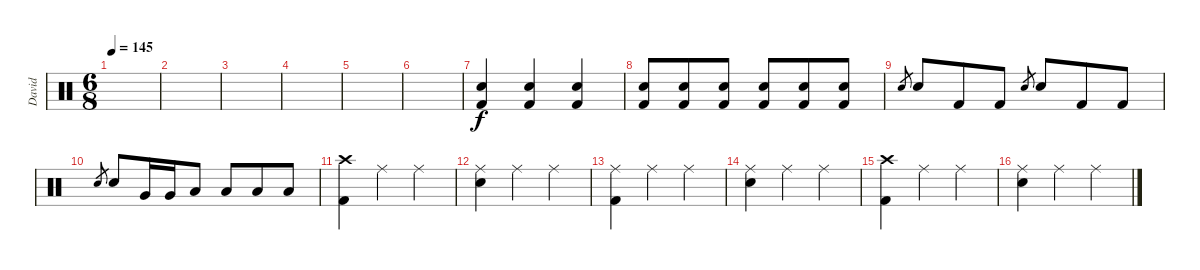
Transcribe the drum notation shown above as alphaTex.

\track ("David" "David") {instrument percussion}
\staff {score}
\articulation defaults
\ts (6 8)
\tempo 145
\clef neutral
\ks c
|
|
|
|
|
|
("Electric Snare (hit)" "Kick (hit) 2").4 ("Electric Snare (hit)" "Kick (hit) 2").4 ("Electric Snare (hit)" "Kick (hit) 2").4 |
("Electric Snare (hit)" "Kick (hit) 2").8 ("Electric Snare (hit)" "Kick (hit) 2").8 ("Electric Snare (hit)" "Kick (hit) 2").8 ("Electric Snare (hit)" "Kick (hit) 2").8 ("Electric Snare (hit)" "Kick (hit) 2").8 ("Electric Snare (hit)" "Kick (hit) 2").8 |
"Electric Snare (hit)".8{gr} "Electric Snare (hit)".8{volume 16} "Kick (hit) 2".8 "Kick (hit) 2".8 "Electric Snare (hit)".8{gr} "Electric Snare (hit)".8 "Kick (hit) 2".8 "Kick (hit) 2".8 |
"Electric Snare (hit)".8{gr} "Electric Snare (hit)".8 "Very Low Tom (hit)".16 "Very Low Tom (hit)".16 "Low Tom (hit)".8 "Low Tom (hit)".8 "Low Floor Tom (hit)".8 "Low Floor Tom (hit)".8 |
("Crash high (hit)" "Kick (hit) 2").4 "Ride (middle)".4 "Ride (middle)".4 |
("Ride (middle)" "Electric Snare (hit)").4 "Ride (middle)".4 "Ride (middle)".4 |
("Ride (middle)" "Kick (hit) 2").4 "Ride (middle)".4 "Ride (middle)".4 |
("Ride (middle)" "Electric Snare (hit)").4 "Ride (middle)".4 "Ride (middle)".4 |
("Crash high (hit)" "Kick (hit) 2").4 "Ride (middle)".4 "Ride (middle)".4 |
("Ride (middle)" "Electric Snare (hit)").4 "Ride (middle)".4 "Ride (middle)".4
